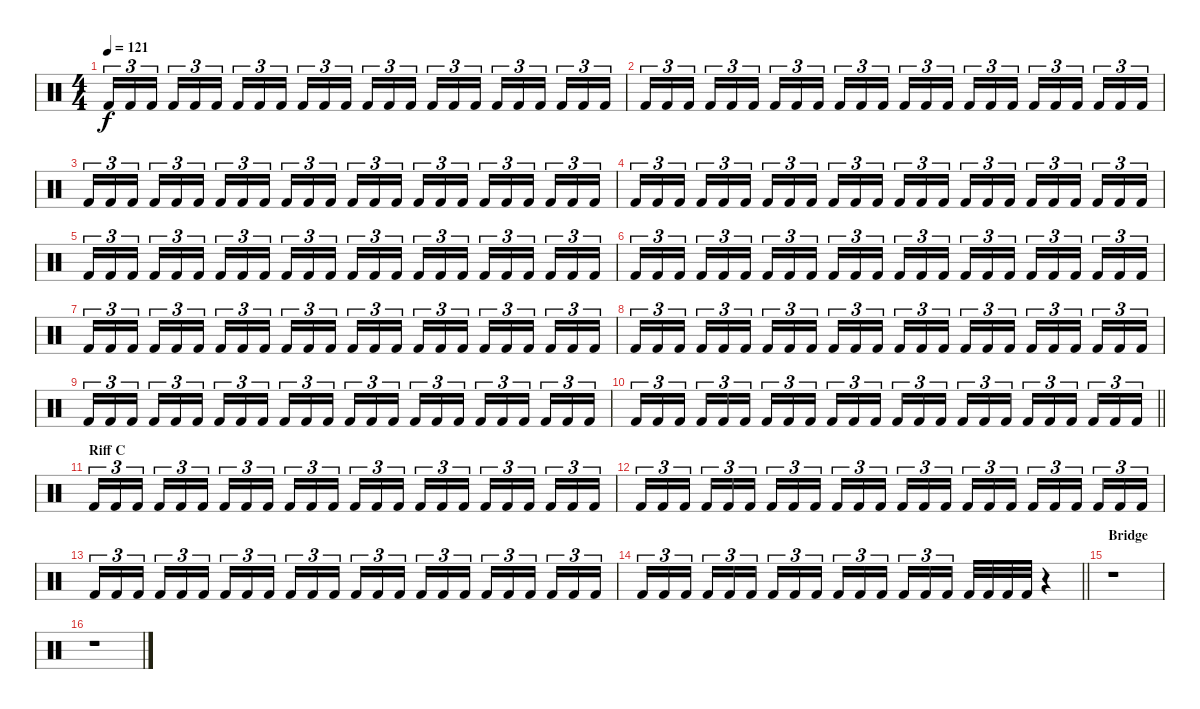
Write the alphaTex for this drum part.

\track "" {instrument percussion}
\staff {score}
\articulation defaults
\ts (4 4)
\tempo 121
\clef neutral
\ks c "Kick (hit) 2".16{tu (3 2) dy f} "Kick (hit) 2".16{tu (3 2)} "Kick (hit) 2".16{tu (3 2) beam splitsecondary} "Kick (hit) 2".16{tu (3 2)} "Kick (hit) 2".16{tu (3 2)} "Kick (hit) 2".16{tu (3 2)} "Kick (hit) 2".16{tu (3 2)} "Kick (hit) 2".16{tu (3 2)} "Kick (hit) 2".16{tu (3 2) beam splitsecondary} "Kick (hit) 2".16{tu (3 2)} "Kick (hit) 2".16{tu (3 2)} "Kick (hit) 2".16{tu (3 2)} "Kick (hit) 2".16{tu (3 2)} "Kick (hit) 2".16{tu (3 2)} "Kick (hit) 2".16{tu (3 2) beam splitsecondary} "Kick (hit) 2".16{tu (3 2)} "Kick (hit) 2".16{tu (3 2)} "Kick (hit) 2".16{tu (3 2)} "Kick (hit) 2".16{tu (3 2)} "Kick (hit) 2".16{tu (3 2)} "Kick (hit) 2".16{tu (3 2) beam splitsecondary} "Kick (hit) 2".16{tu (3 2)} "Kick (hit) 2".16{tu (3 2)} "Kick (hit) 2".16{tu (3 2)}
|
"Kick (hit) 2".16{tu (3 2)} "Kick (hit) 2".16{tu (3 2)} "Kick (hit) 2".16{tu (3 2) beam splitsecondary} "Kick (hit) 2".16{tu (3 2)} "Kick (hit) 2".16{tu (3 2)} "Kick (hit) 2".16{tu (3 2)} "Kick (hit) 2".16{tu (3 2)} "Kick (hit) 2".16{tu (3 2)} "Kick (hit) 2".16{tu (3 2) beam splitsecondary} "Kick (hit) 2".16{tu (3 2)} "Kick (hit) 2".16{tu (3 2)} "Kick (hit) 2".16{tu (3 2)} "Kick (hit) 2".16{tu (3 2)} "Kick (hit) 2".16{tu (3 2)} "Kick (hit) 2".16{tu (3 2) beam splitsecondary} "Kick (hit) 2".16{tu (3 2)} "Kick (hit) 2".16{tu (3 2)} "Kick (hit) 2".16{tu (3 2)} "Kick (hit) 2".16{tu (3 2)} "Kick (hit) 2".16{tu (3 2)} "Kick (hit) 2".16{tu (3 2) beam splitsecondary} "Kick (hit) 2".16{tu (3 2)} "Kick (hit) 2".16{tu (3 2)} "Kick (hit) 2".16{tu (3 2)} |
"Kick (hit) 2".16{tu (3 2)} "Kick (hit) 2".16{tu (3 2)} "Kick (hit) 2".16{tu (3 2) beam splitsecondary} "Kick (hit) 2".16{tu (3 2)} "Kick (hit) 2".16{tu (3 2)} "Kick (hit) 2".16{tu (3 2)} "Kick (hit) 2".16{tu (3 2)} "Kick (hit) 2".16{tu (3 2)} "Kick (hit) 2".16{tu (3 2) beam splitsecondary} "Kick (hit) 2".16{tu (3 2)} "Kick (hit) 2".16{tu (3 2)} "Kick (hit) 2".16{tu (3 2)} "Kick (hit) 2".16{tu (3 2)} "Kick (hit) 2".16{tu (3 2)} "Kick (hit) 2".16{tu (3 2) beam splitsecondary} "Kick (hit) 2".16{tu (3 2)} "Kick (hit) 2".16{tu (3 2)} "Kick (hit) 2".16{tu (3 2)} "Kick (hit) 2".16{tu (3 2)} "Kick (hit) 2".16{tu (3 2)} "Kick (hit) 2".16{tu (3 2) beam splitsecondary} "Kick (hit) 2".16{tu (3 2)} "Kick (hit) 2".16{tu (3 2)} "Kick (hit) 2".16{tu (3 2)} |
"Kick (hit) 2".16{tu (3 2)} "Kick (hit) 2".16{tu (3 2)} "Kick (hit) 2".16{tu (3 2) beam splitsecondary} "Kick (hit) 2".16{tu (3 2)} "Kick (hit) 2".16{tu (3 2)} "Kick (hit) 2".16{tu (3 2)} "Kick (hit) 2".16{tu (3 2)} "Kick (hit) 2".16{tu (3 2)} "Kick (hit) 2".16{tu (3 2) beam splitsecondary} "Kick (hit) 2".16{tu (3 2)} "Kick (hit) 2".16{tu (3 2)} "Kick (hit) 2".16{tu (3 2)} "Kick (hit) 2".16{tu (3 2)} "Kick (hit) 2".16{tu (3 2)} "Kick (hit) 2".16{tu (3 2) beam splitsecondary} "Kick (hit) 2".16{tu (3 2)} "Kick (hit) 2".16{tu (3 2)} "Kick (hit) 2".16{tu (3 2)} "Kick (hit) 2".16{tu (3 2)} "Kick (hit) 2".16{tu (3 2)} "Kick (hit) 2".16{tu (3 2) beam splitsecondary} "Kick (hit) 2".16{tu (3 2)} "Kick (hit) 2".16{tu (3 2)} "Kick (hit) 2".16{tu (3 2)} |
"Kick (hit) 2".16{tu (3 2)} "Kick (hit) 2".16{tu (3 2)} "Kick (hit) 2".16{tu (3 2) beam splitsecondary} "Kick (hit) 2".16{tu (3 2)} "Kick (hit) 2".16{tu (3 2)} "Kick (hit) 2".16{tu (3 2)} "Kick (hit) 2".16{tu (3 2)} "Kick (hit) 2".16{tu (3 2)} "Kick (hit) 2".16{tu (3 2) beam splitsecondary} "Kick (hit) 2".16{tu (3 2)} "Kick (hit) 2".16{tu (3 2)} "Kick (hit) 2".16{tu (3 2)} "Kick (hit) 2".16{tu (3 2)} "Kick (hit) 2".16{tu (3 2)} "Kick (hit) 2".16{tu (3 2) beam splitsecondary} "Kick (hit) 2".16{tu (3 2)} "Kick (hit) 2".16{tu (3 2)} "Kick (hit) 2".16{tu (3 2)} "Kick (hit) 2".16{tu (3 2)} "Kick (hit) 2".16{tu (3 2)} "Kick (hit) 2".16{tu (3 2) beam splitsecondary} "Kick (hit) 2".16{tu (3 2)} "Kick (hit) 2".16{tu (3 2)} "Kick (hit) 2".16{tu (3 2)} |
"Kick (hit) 2".16{tu (3 2)} "Kick (hit) 2".16{tu (3 2)} "Kick (hit) 2".16{tu (3 2) beam splitsecondary} "Kick (hit) 2".16{tu (3 2)} "Kick (hit) 2".16{tu (3 2)} "Kick (hit) 2".16{tu (3 2)} "Kick (hit) 2".16{tu (3 2)} "Kick (hit) 2".16{tu (3 2)} "Kick (hit) 2".16{tu (3 2) beam splitsecondary} "Kick (hit) 2".16{tu (3 2)} "Kick (hit) 2".16{tu (3 2)} "Kick (hit) 2".16{tu (3 2)} "Kick (hit) 2".16{tu (3 2)} "Kick (hit) 2".16{tu (3 2)} "Kick (hit) 2".16{tu (3 2) beam splitsecondary} "Kick (hit) 2".16{tu (3 2)} "Kick (hit) 2".16{tu (3 2)} "Kick (hit) 2".16{tu (3 2)} "Kick (hit) 2".16{tu (3 2)} "Kick (hit) 2".16{tu (3 2)} "Kick (hit) 2".16{tu (3 2) beam splitsecondary} "Kick (hit) 2".16{tu (3 2)} "Kick (hit) 2".16{tu (3 2)} "Kick (hit) 2".16{tu (3 2)} |
"Kick (hit) 2".16{tu (3 2)} "Kick (hit) 2".16{tu (3 2)} "Kick (hit) 2".16{tu (3 2) beam splitsecondary} "Kick (hit) 2".16{tu (3 2)} "Kick (hit) 2".16{tu (3 2)} "Kick (hit) 2".16{tu (3 2)} "Kick (hit) 2".16{tu (3 2)} "Kick (hit) 2".16{tu (3 2)} "Kick (hit) 2".16{tu (3 2) beam splitsecondary} "Kick (hit) 2".16{tu (3 2)} "Kick (hit) 2".16{tu (3 2)} "Kick (hit) 2".16{tu (3 2)} "Kick (hit) 2".16{tu (3 2)} "Kick (hit) 2".16{tu (3 2)} "Kick (hit) 2".16{tu (3 2) beam splitsecondary} "Kick (hit) 2".16{tu (3 2)} "Kick (hit) 2".16{tu (3 2)} "Kick (hit) 2".16{tu (3 2)} "Kick (hit) 2".16{tu (3 2)} "Kick (hit) 2".16{tu (3 2)} "Kick (hit) 2".16{tu (3 2) beam splitsecondary} "Kick (hit) 2".16{tu (3 2)} "Kick (hit) 2".16{tu (3 2)} "Kick (hit) 2".16{tu (3 2)} |
"Kick (hit) 2".16{tu (3 2)} "Kick (hit) 2".16{tu (3 2)} "Kick (hit) 2".16{tu (3 2) beam splitsecondary} "Kick (hit) 2".16{tu (3 2)} "Kick (hit) 2".16{tu (3 2)} "Kick (hit) 2".16{tu (3 2)} "Kick (hit) 2".16{tu (3 2)} "Kick (hit) 2".16{tu (3 2)} "Kick (hit) 2".16{tu (3 2) beam splitsecondary} "Kick (hit) 2".16{tu (3 2)} "Kick (hit) 2".16{tu (3 2)} "Kick (hit) 2".16{tu (3 2)} "Kick (hit) 2".16{tu (3 2)} "Kick (hit) 2".16{tu (3 2)} "Kick (hit) 2".16{tu (3 2) beam splitsecondary} "Kick (hit) 2".16{tu (3 2)} "Kick (hit) 2".16{tu (3 2)} "Kick (hit) 2".16{tu (3 2)} "Kick (hit) 2".16{tu (3 2)} "Kick (hit) 2".16{tu (3 2)} "Kick (hit) 2".16{tu (3 2) beam splitsecondary} "Kick (hit) 2".16{tu (3 2)} "Kick (hit) 2".16{tu (3 2)} "Kick (hit) 2".16{tu (3 2)} |
"Kick (hit) 2".16{tu (3 2)} "Kick (hit) 2".16{tu (3 2)} "Kick (hit) 2".16{tu (3 2) beam splitsecondary} "Kick (hit) 2".16{tu (3 2)} "Kick (hit) 2".16{tu (3 2)} "Kick (hit) 2".16{tu (3 2)} "Kick (hit) 2".16{tu (3 2)} "Kick (hit) 2".16{tu (3 2)} "Kick (hit) 2".16{tu (3 2) beam splitsecondary} "Kick (hit) 2".16{tu (3 2)} "Kick (hit) 2".16{tu (3 2)} "Kick (hit) 2".16{tu (3 2)} "Kick (hit) 2".16{tu (3 2)} "Kick (hit) 2".16{tu (3 2)} "Kick (hit) 2".16{tu (3 2) beam splitsecondary} "Kick (hit) 2".16{tu (3 2)} "Kick (hit) 2".16{tu (3 2)} "Kick (hit) 2".16{tu (3 2)} "Kick (hit) 2".16{tu (3 2)} "Kick (hit) 2".16{tu (3 2)} "Kick (hit) 2".16{tu (3 2) beam splitsecondary} "Kick (hit) 2".16{tu (3 2)} "Kick (hit) 2".16{tu (3 2)} "Kick (hit) 2".16{tu (3 2)} |
\barLineRight lightlight "Kick (hit) 2".16{tu (3 2)} "Kick (hit) 2".16{tu (3 2)} "Kick (hit) 2".16{tu (3 2) beam splitsecondary} "Kick (hit) 2".16{tu (3 2)} "Kick (hit) 2".16{tu (3 2)} "Kick (hit) 2".16{tu (3 2)} "Kick (hit) 2".16{tu (3 2)} "Kick (hit) 2".16{tu (3 2)} "Kick (hit) 2".16{tu (3 2) beam splitsecondary} "Kick (hit) 2".16{tu (3 2)} "Kick (hit) 2".16{tu (3 2)} "Kick (hit) 2".16{tu (3 2)} "Kick (hit) 2".16{tu (3 2)} "Kick (hit) 2".16{tu (3 2)} "Kick (hit) 2".16{tu (3 2) beam splitsecondary} "Kick (hit) 2".16{tu (3 2)} "Kick (hit) 2".16{tu (3 2)} "Kick (hit) 2".16{tu (3 2)} "Kick (hit) 2".16{tu (3 2)} "Kick (hit) 2".16{tu (3 2)} "Kick (hit) 2".16{tu (3 2) beam splitsecondary} "Kick (hit) 2".16{tu (3 2)} "Kick (hit) 2".16{tu (3 2)} "Kick (hit) 2".16{tu (3 2)}
|
\section ("" "Riff C")
"Kick (hit) 2".16{tu (3 2)} "Kick (hit) 2".16{tu (3 2)} "Kick (hit) 2".16{tu (3 2) beam splitsecondary} "Kick (hit) 2".16{tu (3 2)} "Kick (hit) 2".16{tu (3 2)} "Kick (hit) 2".16{tu (3 2)} "Kick (hit) 2".16{tu (3 2)} "Kick (hit) 2".16{tu (3 2)} "Kick (hit) 2".16{tu (3 2) beam splitsecondary} "Kick (hit) 2".16{tu (3 2)} "Kick (hit) 2".16{tu (3 2)} "Kick (hit) 2".16{tu (3 2)} "Kick (hit) 2".16{tu (3 2)} "Kick (hit) 2".16{tu (3 2)} "Kick (hit) 2".16{tu (3 2) beam splitsecondary} "Kick (hit) 2".16{tu (3 2)} "Kick (hit) 2".16{tu (3 2)} "Kick (hit) 2".16{tu (3 2)} "Kick (hit) 2".16{tu (3 2)} "Kick (hit) 2".16{tu (3 2)} "Kick (hit) 2".16{tu (3 2) beam splitsecondary} "Kick (hit) 2".16{tu (3 2)} "Kick (hit) 2".16{tu (3 2)} "Kick (hit) 2".16{tu (3 2)} |
"Kick (hit) 2".16{tu (3 2)} "Kick (hit) 2".16{tu (3 2)} "Kick (hit) 2".16{tu (3 2) beam splitsecondary} "Kick (hit) 2".16{tu (3 2)} "Kick (hit) 2".16{tu (3 2)} "Kick (hit) 2".16{tu (3 2)} "Kick (hit) 2".16{tu (3 2)} "Kick (hit) 2".16{tu (3 2)} "Kick (hit) 2".16{tu (3 2) beam splitsecondary} "Kick (hit) 2".16{tu (3 2)} "Kick (hit) 2".16{tu (3 2)} "Kick (hit) 2".16{tu (3 2)} "Kick (hit) 2".16{tu (3 2)} "Kick (hit) 2".16{tu (3 2)} "Kick (hit) 2".16{tu (3 2) beam splitsecondary} "Kick (hit) 2".16{tu (3 2)} "Kick (hit) 2".16{tu (3 2)} "Kick (hit) 2".16{tu (3 2)} "Kick (hit) 2".16{tu (3 2)} "Kick (hit) 2".16{tu (3 2)} "Kick (hit) 2".16{tu (3 2) beam splitsecondary} "Kick (hit) 2".16{tu (3 2)} "Kick (hit) 2".16{tu (3 2)} "Kick (hit) 2".16{tu (3 2)} |
"Kick (hit) 2".16{tu (3 2)} "Kick (hit) 2".16{tu (3 2)} "Kick (hit) 2".16{tu (3 2) beam splitsecondary} "Kick (hit) 2".16{tu (3 2)} "Kick (hit) 2".16{tu (3 2)} "Kick (hit) 2".16{tu (3 2)} "Kick (hit) 2".16{tu (3 2)} "Kick (hit) 2".16{tu (3 2)} "Kick (hit) 2".16{tu (3 2) beam splitsecondary} "Kick (hit) 2".16{tu (3 2)} "Kick (hit) 2".16{tu (3 2)} "Kick (hit) 2".16{tu (3 2)} "Kick (hit) 2".16{tu (3 2)} "Kick (hit) 2".16{tu (3 2)} "Kick (hit) 2".16{tu (3 2) beam splitsecondary} "Kick (hit) 2".16{tu (3 2)} "Kick (hit) 2".16{tu (3 2)} "Kick (hit) 2".16{tu (3 2)} "Kick (hit) 2".16{tu (3 2)} "Kick (hit) 2".16{tu (3 2)} "Kick (hit) 2".16{tu (3 2) beam splitsecondary} "Kick (hit) 2".16{tu (3 2)} "Kick (hit) 2".16{tu (3 2)} "Kick (hit) 2".16{tu (3 2)} |
\barLineRight lightlight "Kick (hit) 2".16{tu (3 2)} "Kick (hit) 2".16{tu (3 2)} "Kick (hit) 2".16{tu (3 2) beam splitsecondary} "Kick (hit) 2".16{tu (3 2)} "Kick (hit) 2".16{tu (3 2)} "Kick (hit) 2".16{tu (3 2)} "Kick (hit) 2".16{tu (3 2)} "Kick (hit) 2".16{tu (3 2)} "Kick (hit) 2".16{tu (3 2) beam splitsecondary} "Kick (hit) 2".16{tu (3 2)} "Kick (hit) 2".16{tu (3 2)} "Kick (hit) 2".16{tu (3 2)} "Kick (hit) 2".16{tu (3 2)} "Kick (hit) 2".16{tu (3 2)} "Kick (hit) 2".16{tu (3 2) beam splitsecondary} "Kick (hit) 2".32 "Kick (hit) 2".32 "Kick (hit) 2".32 "Kick (hit) 2".32
r.4 |
\section ("" "Bridge ")
r.1 |
r.1
